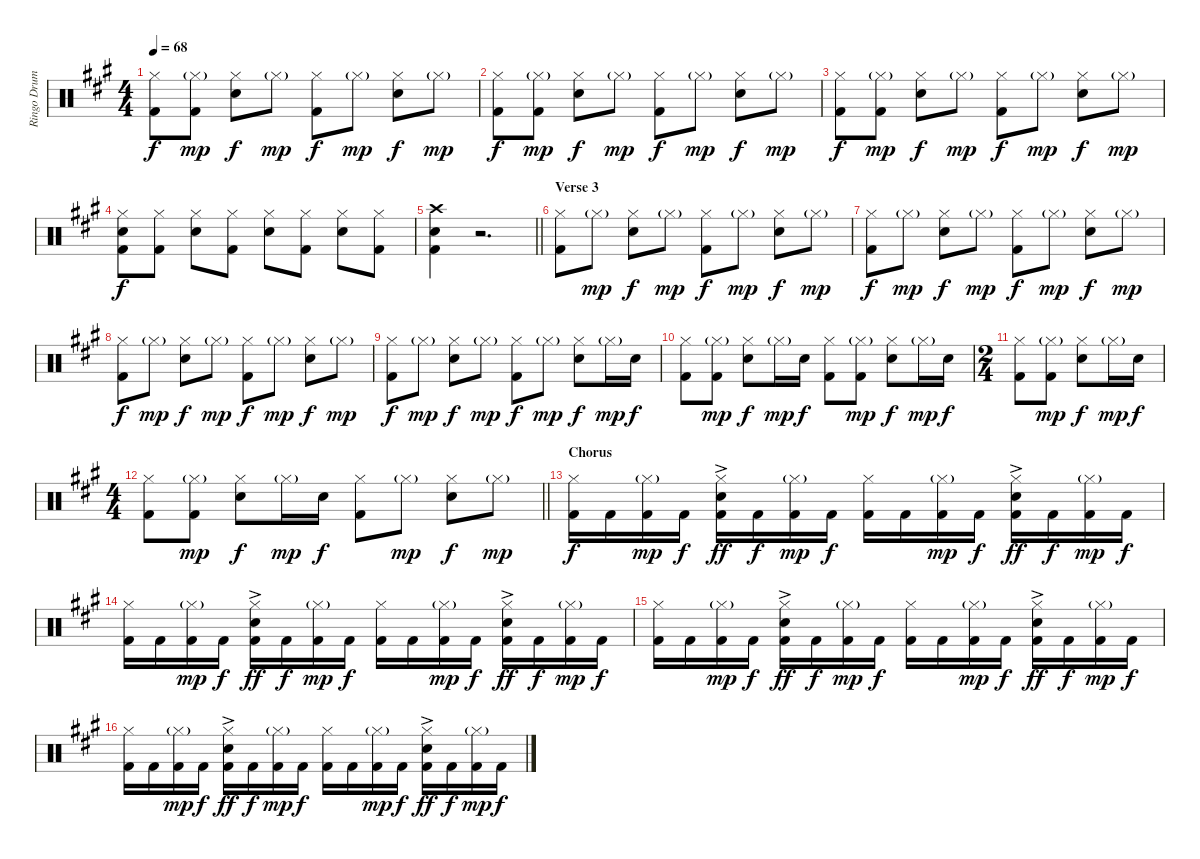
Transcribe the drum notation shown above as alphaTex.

\track ("Ringo Drums" "Ringo Drum") {instrument percussion}
\staff {score}
\articulation defaults
\ts (4 4)
\tempo 68
\clef neutral
\ks a
("Hi-Hat (closed)" "Kick (hit) 2").8{dy f} ("Hi-Hat (closed)"{g} "Kick (hit) 2").8{dy mp} ("Hi-Hat (closed)" "Snare (hit) 2").8{dy f} "Hi-Hat (closed)"{g}.8{dy mp} ("Hi-Hat (closed)" "Kick (hit) 2").8{dy f} "Hi-Hat (closed)"{g}.8{dy mp} ("Hi-Hat (closed)" "Snare (hit) 2").8{dy f} "Hi-Hat (closed)"{g}.8{dy mp} |
("Hi-Hat (closed)" "Kick (hit) 2").8{dy f} ("Hi-Hat (closed)"{g} "Kick (hit) 2").8{dy mp} ("Hi-Hat (closed)" "Snare (hit) 2").8{dy f} "Hi-Hat (closed)"{g}.8{dy mp} ("Hi-Hat (closed)" "Kick (hit) 2").8{dy f} "Hi-Hat (closed)"{g}.8{dy mp} ("Hi-Hat (closed)" "Snare (hit) 2").8{dy f} "Hi-Hat (closed)"{g}.8{dy mp} |
("Hi-Hat (closed)" "Kick (hit) 2").8{dy f} ("Hi-Hat (closed)"{g} "Kick (hit) 2").8{dy mp} ("Hi-Hat (closed)" "Snare (hit) 2").8{dy f} "Hi-Hat (closed)"{g}.8{dy mp} ("Hi-Hat (closed)" "Kick (hit) 2").8{dy f} "Hi-Hat (closed)"{g}.8{dy mp} ("Hi-Hat (closed)" "Snare (hit) 2").8{dy f} "Hi-Hat (closed)"{g}.8{dy mp} |
("Hi-Hat (closed)" "Snare (hit) 2" "Kick (hit) 2").8{dy f} ("Hi-Hat (closed)" "Kick (hit) 2").8 ("Hi-Hat (closed)" "Snare (hit) 2").8 ("Hi-Hat (closed)" "Kick (hit) 2").8 ("Hi-Hat (closed)" "Snare (hit) 2").8 ("Hi-Hat (closed)" "Kick (hit) 2").8 ("Hi-Hat (closed)" "Snare (hit) 2").8 ("Hi-Hat (closed)" "Kick (hit) 2").8 |
\barLineRight lightlight
("Crash high (hit)" "Snare (hit) 2" "Kick (hit) 2").4 r.2{d} |
\section ("" "Verse 3")
("Hi-Hat (closed)" "Kick (hit) 2").8 "Hi-Hat (closed)"{g}.8{dy mp} ("Hi-Hat (closed)" "Snare (hit) 2").8{dy f} "Hi-Hat (closed)"{g}.8{dy mp} ("Hi-Hat (closed)" "Kick (hit) 2").8{dy f} "Hi-Hat (closed)"{g}.8{dy mp} ("Hi-Hat (closed)" "Snare (hit) 2").8{dy f} "Hi-Hat (closed)"{g}.8{dy mp} |
("Hi-Hat (closed)" "Kick (hit) 2").8{dy f} "Hi-Hat (closed)"{g}.8{dy mp} ("Hi-Hat (closed)" "Snare (hit) 2").8{dy f} "Hi-Hat (closed)"{g}.8{dy mp} ("Hi-Hat (closed)" "Kick (hit) 2").8{dy f} "Hi-Hat (closed)"{g}.8{dy mp} ("Hi-Hat (closed)" "Snare (hit) 2").8{dy f} "Hi-Hat (closed)"{g}.8{dy mp} |
("Hi-Hat (closed)" "Kick (hit) 2").8{dy f} "Hi-Hat (closed)"{g}.8{dy mp} ("Hi-Hat (closed)" "Snare (hit) 2").8{dy f} "Hi-Hat (closed)"{g}.8{dy mp} ("Hi-Hat (closed)" "Kick (hit) 2").8{dy f} "Hi-Hat (closed)"{g}.8{dy mp} ("Hi-Hat (closed)" "Snare (hit) 2").8{dy f} "Hi-Hat (closed)"{g}.8{dy mp} |
("Hi-Hat (closed)" "Kick (hit) 2").8{dy f} "Hi-Hat (closed)"{g}.8{dy mp} ("Hi-Hat (closed)" "Snare (hit) 2").8{dy f} "Hi-Hat (closed)"{g}.8{dy mp} ("Hi-Hat (closed)" "Kick (hit) 2").8{dy f} "Hi-Hat (closed)"{g}.8{dy mp} ("Hi-Hat (closed)" "Snare (hit) 2").8{dy f} "Hi-Hat (closed)"{g}.16{dy mp} "Snare (hit) 2".16{dy f} |
("Hi-Hat (closed)" "Kick (hit) 2").8 ("Hi-Hat (closed)"{g} "Kick (hit) 2").8{dy mp} ("Hi-Hat (closed)" "Snare (hit) 2").8{dy f} "Hi-Hat (closed)"{g}.16{dy mp} "Snare (hit) 2".16{dy f} ("Hi-Hat (closed)" "Kick (hit) 2").8 ("Hi-Hat (closed)"{g} "Kick (hit) 2").8{dy mp} ("Hi-Hat (closed)" "Snare (hit) 2").8{dy f} "Hi-Hat (closed)"{g}.16{dy mp} "Snare (hit) 2".16{dy f} |
\ts (2 4)
("Hi-Hat (closed)" "Kick (hit) 2").8 ("Hi-Hat (closed)"{g} "Kick (hit) 2").8{dy mp} ("Hi-Hat (closed)" "Snare (hit) 2").8{dy f} "Hi-Hat (closed)"{g}.16{dy mp} "Snare (hit) 2".16{dy f} |
\ts (4 4)
\barLineRight lightlight
("Hi-Hat (closed)" "Kick (hit) 2").8 ("Hi-Hat (closed)"{g} "Kick (hit) 2").8{dy mp} ("Hi-Hat (closed)" "Snare (hit) 2").8{dy f} "Hi-Hat (closed)"{g}.16{dy mp} "Snare (hit) 2".16{dy f} ("Hi-Hat (closed)" "Kick (hit) 2").8 "Hi-Hat (closed)"{g}.8{dy mp} ("Hi-Hat (closed)" "Snare (hit) 2").8{dy f} "Hi-Hat (closed)"{g}.8{dy mp} |
\section ("" "Chorus")
("Hi-Hat (closed)" "Kick (hit) 2").16{dy f} "Kick (hit) 2".16 ("Hi-Hat (closed)"{g} "Kick (hit) 2").16{dy mp} "Kick (hit) 2".16{dy f} ("Hi-Hat (closed)" "Snare (hit) 2"{ac} "Kick (hit) 2").16{dy ff} "Kick (hit) 2".16{dy f} ("Hi-Hat (closed)"{g} "Kick (hit) 2").16{dy mp} "Kick (hit) 2".16{dy f} ("Hi-Hat (closed)" "Kick (hit) 2").16 "Kick (hit) 2".16 ("Hi-Hat (closed)"{g} "Kick (hit) 2").16{dy mp} "Kick (hit) 2".16{dy f} ("Hi-Hat (closed)" "Snare (hit) 2"{ac} "Kick (hit) 2").16{dy ff} "Kick (hit) 2".16{dy f} ("Hi-Hat (closed)"{g} "Kick (hit) 2").16{dy mp} "Kick (hit) 2".16{dy f} |
("Hi-Hat (closed)" "Kick (hit) 2").16 "Kick (hit) 2".16 ("Hi-Hat (closed)"{g} "Kick (hit) 2").16{dy mp} "Kick (hit) 2".16{dy f} ("Hi-Hat (closed)" "Snare (hit) 2"{ac} "Kick (hit) 2").16{dy ff} "Kick (hit) 2".16{dy f} ("Hi-Hat (closed)"{g} "Kick (hit) 2").16{dy mp} "Kick (hit) 2".16{dy f} ("Hi-Hat (closed)" "Kick (hit) 2").16 "Kick (hit) 2".16 ("Hi-Hat (closed)"{g} "Kick (hit) 2").16{dy mp} "Kick (hit) 2".16{dy f} ("Hi-Hat (closed)" "Snare (hit) 2"{ac} "Kick (hit) 2").16{dy ff} "Kick (hit) 2".16{dy f} ("Hi-Hat (closed)"{g} "Kick (hit) 2").16{dy mp} "Kick (hit) 2".16{dy f} |
("Hi-Hat (closed)" "Kick (hit) 2").16 "Kick (hit) 2".16 ("Hi-Hat (closed)"{g} "Kick (hit) 2").16{dy mp} "Kick (hit) 2".16{dy f} ("Hi-Hat (closed)" "Snare (hit) 2"{ac} "Kick (hit) 2").16{dy ff} "Kick (hit) 2".16{dy f} ("Hi-Hat (closed)"{g} "Kick (hit) 2").16{dy mp} "Kick (hit) 2".16{dy f} ("Hi-Hat (closed)" "Kick (hit) 2").16 "Kick (hit) 2".16 ("Hi-Hat (closed)"{g} "Kick (hit) 2").16{dy mp} "Kick (hit) 2".16{dy f} ("Hi-Hat (closed)" "Snare (hit) 2"{ac} "Kick (hit) 2").16{dy ff} "Kick (hit) 2".16{dy f} ("Hi-Hat (closed)"{g} "Kick (hit) 2").16{dy mp} "Kick (hit) 2".16{dy f} |
("Hi-Hat (closed)" "Kick (hit) 2").16 "Kick (hit) 2".16 ("Hi-Hat (closed)"{g} "Kick (hit) 2").16{dy mp} "Kick (hit) 2".16{dy f} ("Hi-Hat (closed)" "Snare (hit) 2"{ac} "Kick (hit) 2").16{dy ff} "Kick (hit) 2".16{dy f} ("Hi-Hat (closed)"{g} "Kick (hit) 2").16{dy mp} "Kick (hit) 2".16{dy f} ("Hi-Hat (closed)" "Kick (hit) 2").16 "Kick (hit) 2".16 ("Hi-Hat (closed)"{g} "Kick (hit) 2").16{dy mp} "Kick (hit) 2".16{dy f} ("Hi-Hat (closed)" "Snare (hit) 2"{ac} "Kick (hit) 2").16{dy ff} "Kick (hit) 2".16{dy f} ("Hi-Hat (closed)"{g} "Kick (hit) 2").16{dy mp} "Kick (hit) 2".16{dy f}
